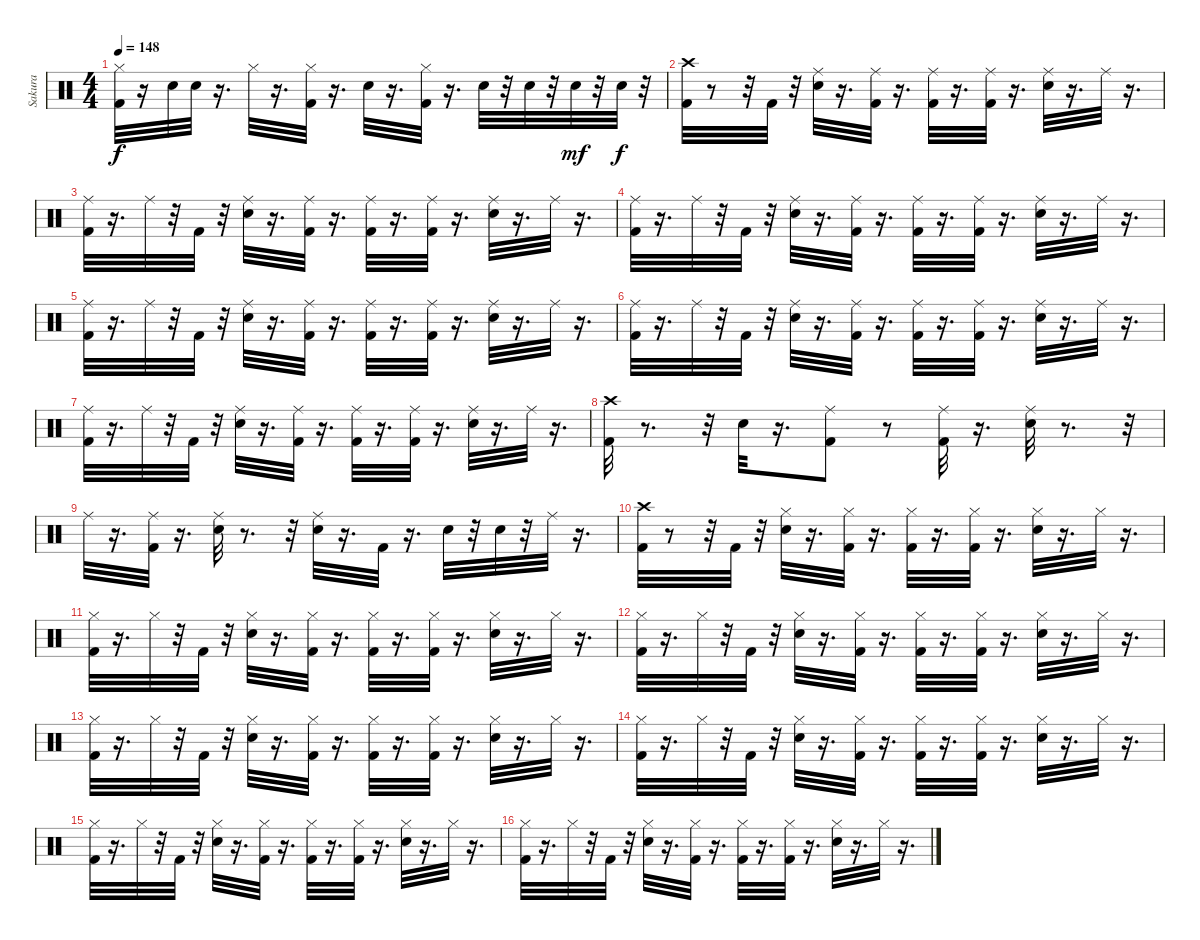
\track ("Sakura" "Sakura") {instrument percussion}
\staff {score}
\articulation defaults
\ts (4 4)
\tempo 148
\clef neutral
\ks c
("Hi-Hat (closed)" "Kick (hit) 2").32{dy f} r.16 "Snare (hit) 2".32 "Snare (hit) 2".32 r.16{d} "Hi-Hat (closed)".32 r.16{d} ("Hi-Hat (closed)" "Kick (hit) 2").32 r.16{d} "Snare (hit) 2".32 r.16{d} ("Hi-Hat (closed)" "Kick (hit) 2").32 r.16{d} "Snare (hit) 2".32 r.32 "Snare (hit) 2".32 r.32 "Snare (hit) 2".32{dy mf} r.32 "Snare (hit) 2".32{dy f} r.32 |
("Crash high (hit)" "Kick (hit) 2").32 r.8 r.32 "Kick (hit) 2".32 r.32 ("Ride (middle)" "Snare (hit) 2").32 r.16{d} ("Ride (middle)" "Kick (hit) 2").32 r.16{d} ("Ride (middle)" "Kick (hit) 2").32 r.16{d} ("Ride (middle)" "Kick (hit) 2").32 r.16{d} ("Ride (middle)" "Snare (hit) 2").32 r.16{d} "Ride (middle)".32 r.16{d} |
("Kick (hit) 2" "Ride (middle)").32 r.16{d} "Ride (middle)".32 r.32 "Kick (hit) 2".32 r.32 ("Ride (middle)" "Snare (hit) 2").32 r.16{d} ("Ride (middle)" "Kick (hit) 2").32 r.16{d} ("Ride (middle)" "Kick (hit) 2").32 r.16{d} ("Ride (middle)" "Kick (hit) 2").32 r.16{d} ("Ride (middle)" "Snare (hit) 2").32 r.16{d} "Ride (middle)".32 r.16{d} |
("Kick (hit) 2" "Ride (middle)").32 r.16{d} "Ride (middle)".32 r.32 "Kick (hit) 2".32 r.32 ("Ride (middle)" "Snare (hit) 2").32 r.16{d} ("Ride (middle)" "Kick (hit) 2").32 r.16{d} ("Ride (middle)" "Kick (hit) 2").32 r.16{d} ("Ride (middle)" "Kick (hit) 2").32 r.16{d} ("Ride (middle)" "Snare (hit) 2").32 r.16{d} "Ride (middle)".32 r.16{d} |
("Kick (hit) 2" "Ride (middle)").32 r.16{d} "Ride (middle)".32 r.32 "Kick (hit) 2".32 r.32 ("Ride (middle)" "Snare (hit) 2").32 r.16{d} ("Ride (middle)" "Kick (hit) 2").32 r.16{d} ("Ride (middle)" "Kick (hit) 2").32 r.16{d} ("Ride (middle)" "Kick (hit) 2").32 r.16{d} ("Ride (middle)" "Snare (hit) 2").32 r.16{d} "Ride (middle)".32 r.16{d} |
("Kick (hit) 2" "Ride (middle)").32 r.16{d} "Ride (middle)".32 r.32 "Kick (hit) 2".32 r.32 ("Ride (middle)" "Snare (hit) 2").32 r.16{d} ("Ride (middle)" "Kick (hit) 2").32 r.16{d} ("Ride (middle)" "Kick (hit) 2").32 r.16{d} ("Ride (middle)" "Kick (hit) 2").32 r.16{d} ("Ride (middle)" "Snare (hit) 2").32 r.16{d} "Ride (middle)".32 r.16{d} |
("Kick (hit) 2" "Ride (middle)").32 r.16{d} "Ride (middle)".32 r.32 "Kick (hit) 2".32 r.32 ("Ride (middle)" "Snare (hit) 2").32 r.16{d} ("Ride (middle)" "Kick (hit) 2").32 r.16{d} ("Ride (middle)" "Kick (hit) 2").32 r.16{d} ("Ride (middle)" "Kick (hit) 2").32 r.16{d} ("Ride (middle)" "Snare (hit) 2").32 r.16{d} "Ride (middle)".32 r.16{d} |
("Crash high (hit)" "Kick (hit) 2").32 r.8{d} r.32 "Snare (hit) 2".32 r.16{d} ("Ride (middle)" "Kick (hit) 2").8 r.8 ("Ride (middle)" "Kick (hit) 2").32 r.16{d} ("Ride (middle)" "Snare (hit) 2").32 r.8{d} r.32 |
"Ride (middle)".32 r.16{d} ("Ride (middle)" "Kick (hit) 2").32 r.16{d} ("Snare (hit) 2" "Ride (middle)").32 r.8{d} r.32 ("Ride (middle)" "Snare (hit) 2").32 r.16{d} "Kick (hit) 2".32 r.16{d} "Snare (hit) 2".32 r.32 "Snare (hit) 2".32 r.32 "Ride (middle)".32 r.16{d} |
("Crash high (hit)" "Kick (hit) 2").32 r.8 r.32 "Kick (hit) 2".32 r.32 ("Hi-Hat (closed)" "Snare (hit) 2").32 r.16{d} ("Hi-Hat (closed)" "Kick (hit) 2").32 r.16{d} ("Hi-Hat (closed)" "Kick (hit) 2").32 r.16{d} ("Hi-Hat (closed)" "Kick (hit) 2").32 r.16{d} ("Hi-Hat (closed)" "Snare (hit) 2").32 r.16{d} "Hi-Hat (closed)".32 r.16{d} |
("Kick (hit) 2" "Hi-Hat (closed)").32 r.16{d} "Hi-Hat (closed)".32 r.32 "Kick (hit) 2".32 r.32 ("Hi-Hat (closed)" "Snare (hit) 2").32 r.16{d} ("Hi-Hat (closed)" "Kick (hit) 2").32 r.16{d} ("Hi-Hat (closed)" "Kick (hit) 2").32 r.16{d} ("Hi-Hat (closed)" "Kick (hit) 2").32 r.16{d} ("Hi-Hat (closed)" "Snare (hit) 2").32 r.16{d} "Hi-Hat (closed)".32 r.16{d} |
("Kick (hit) 2" "Hi-Hat (closed)").32 r.16{d} "Hi-Hat (closed)".32 r.32 "Kick (hit) 2".32 r.32 ("Hi-Hat (closed)" "Snare (hit) 2").32 r.16{d} ("Hi-Hat (closed)" "Kick (hit) 2").32 r.16{d} ("Hi-Hat (closed)" "Kick (hit) 2").32 r.16{d} ("Hi-Hat (closed)" "Kick (hit) 2").32 r.16{d} ("Hi-Hat (closed)" "Snare (hit) 2").32 r.16{d} "Hi-Hat (closed)".32 r.16{d} |
("Kick (hit) 2" "Hi-Hat (closed)").32 r.16{d} "Hi-Hat (closed)".32 r.32 "Kick (hit) 2".32 r.32 ("Hi-Hat (closed)" "Snare (hit) 2").32 r.16{d} ("Hi-Hat (closed)" "Kick (hit) 2").32 r.16{d} ("Hi-Hat (closed)" "Kick (hit) 2").32 r.16{d} ("Hi-Hat (closed)" "Kick (hit) 2").32 r.16{d} ("Hi-Hat (closed)" "Snare (hit) 2").32 r.16{d} "Hi-Hat (closed)".32 r.16{d} |
("Kick (hit) 2" "Hi-Hat (closed)").32 r.16{d} "Hi-Hat (closed)".32 r.32 "Kick (hit) 2".32 r.32 ("Hi-Hat (closed)" "Snare (hit) 2").32 r.16{d} ("Hi-Hat (closed)" "Kick (hit) 2").32 r.16{d} ("Hi-Hat (closed)" "Kick (hit) 2").32 r.16{d} ("Hi-Hat (closed)" "Kick (hit) 2").32 r.16{d} ("Hi-Hat (closed)" "Snare (hit) 2").32 r.16{d} "Hi-Hat (closed)".32 r.16{d} |
("Kick (hit) 2" "Hi-Hat (closed)").32 r.16{d} "Hi-Hat (closed)".32 r.32 "Kick (hit) 2".32 r.32 ("Hi-Hat (closed)" "Snare (hit) 2").32 r.16{d} ("Hi-Hat (closed)" "Kick (hit) 2").32 r.16{d} ("Hi-Hat (closed)" "Kick (hit) 2").32 r.16{d} ("Hi-Hat (closed)" "Kick (hit) 2").32 r.16{d} ("Hi-Hat (closed)" "Snare (hit) 2").32 r.16{d} "Hi-Hat (closed)".32 r.16{d} |
("Kick (hit) 2" "Hi-Hat (closed)").32 r.16{d} "Hi-Hat (closed)".32 r.32 "Kick (hit) 2".32 r.32 ("Hi-Hat (closed)" "Snare (hit) 2").32 r.16{d} ("Hi-Hat (closed)" "Kick (hit) 2").32 r.16{d} ("Hi-Hat (closed)" "Kick (hit) 2").32 r.16{d} ("Hi-Hat (closed)" "Kick (hit) 2").32 r.16{d} ("Hi-Hat (closed)" "Snare (hit) 2").32 r.16{d} "Hi-Hat (closed)".32 r.16{d}
